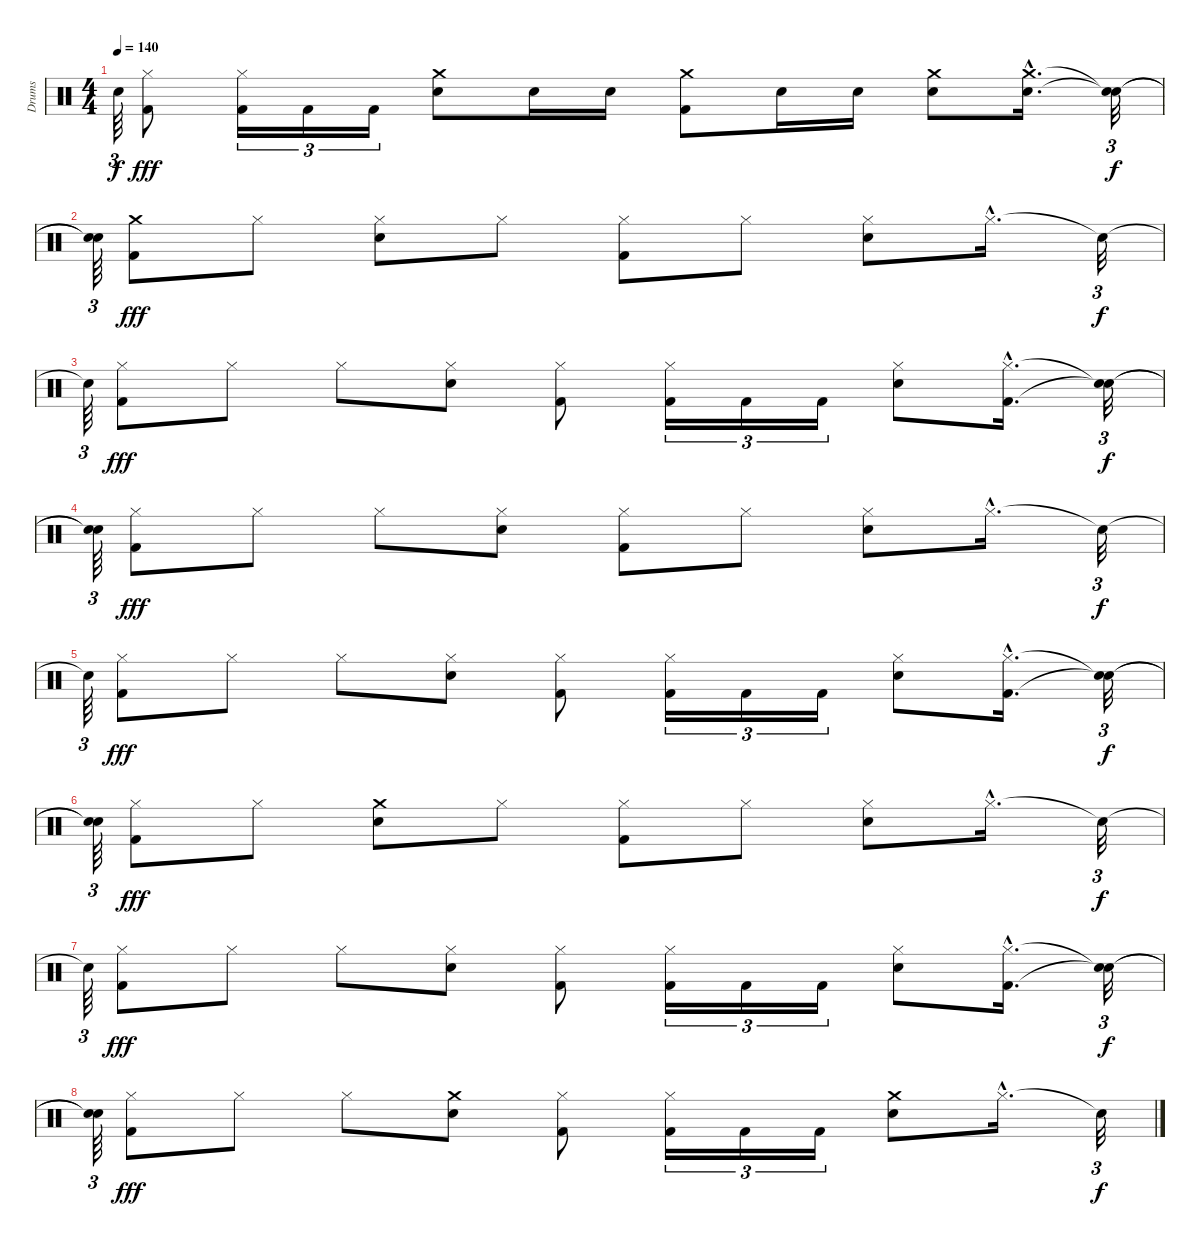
\track ("Drums" "Drums") {instrument percussion}
\staff {score}
\articulation defaults
\ts (4 4)
\tempo 140
\clef neutral
\ks c "Snare (hit)"{t}.64{tu (3 2) dy f}
("Hi-Hat (closed)" "Kick (hit) 2").8{dy fff} ("Hi-Hat (closed)" "Kick (hit) 2").16{tu (3 2)} "Kick (hit) 2".16{tu (3 2)} "Kick (hit) 2".16{tu (3 2)} ("Snare (hit) 2" "Crash medium (hit)").8 "Snare (hit) 2".16 "Snare (hit) 2".16 ("Kick (hit) 2" "Crash medium (hit)").8 "Snare (hit) 2".16 "Snare (hit) 2".16 ("Crash medium (hit)" "Snare (hit) 2").8 ("Crash medium (hit)"{hac} "Snare (hit) 2"{hac}).16{d} ("Snare (hit)"{t} "Snare (hit)"{t}).32{tu (3 2) dy f} |
("Snare (hit)"{t} "Snare (hit)"{t}).64{tu (3 2)} ("Kick (hit) 2" "Crash medium (hit)").8{dy fff} "Hi-Hat (closed)".8 ("Snare (hit) 2" "Hi-Hat (closed)").8 "Hi-Hat (closed)".8 ("Kick (hit) 2" "Hi-Hat (closed)").8 "Hi-Hat (closed)".8 ("Snare (hit) 2" "Hi-Hat (closed)").8 "Hi-Hat (closed)"{hac}.16{d} "Snare (hit)"{t}.32{tu (3 2) dy f} |
"Snare (hit)"{t}.64{tu (3 2)} ("Kick (hit) 2" "Hi-Hat (closed)").8{dy fff} "Hi-Hat (closed)".8 "Hi-Hat (closed)".8 ("Snare (hit) 2" "Hi-Hat (closed)").8 ("Kick (hit) 2" "Hi-Hat (closed)").8 ("Kick (hit) 2" "Hi-Hat (closed)").16{tu (3 2)} "Kick (hit) 2".16{tu (3 2)} "Kick (hit) 2".16{tu (3 2)} ("Snare (hit) 2" "Hi-Hat (closed)").8 ("Kick (hit) 2"{hac} "Hi-Hat (closed)"{hac}).16{d} ("Snare (hit)"{t} "Snare (hit)"{t}).32{tu (3 2) dy f} |
("Snare (hit)"{t} "Snare (hit)"{t}).64{tu (3 2)} ("Hi-Hat (closed)" "Kick (hit) 2").8{dy fff} "Hi-Hat (closed)".8 "Hi-Hat (closed)".8 ("Snare (hit) 2" "Hi-Hat (closed)").8 ("Hi-Hat (closed)" "Kick (hit) 2").8 "Hi-Hat (closed)".8 ("Snare (hit) 2" "Hi-Hat (closed)").8 "Hi-Hat (closed)"{hac}.16{d} "Snare (hit)"{t}.32{tu (3 2) dy f} |
"Snare (hit)"{t}.64{tu (3 2)} ("Kick (hit) 2" "Hi-Hat (closed)").8{dy fff} "Hi-Hat (closed)".8 "Hi-Hat (closed)".8 ("Snare (hit) 2" "Hi-Hat (closed)").8 ("Kick (hit) 2" "Hi-Hat (closed)").8 ("Kick (hit) 2" "Hi-Hat (closed)").16{tu (3 2)} "Kick (hit) 2".16{tu (3 2)} "Kick (hit) 2".16{tu (3 2)} ("Snare (hit) 2" "Hi-Hat (closed)").8 ("Kick (hit) 2"{hac} "Hi-Hat (closed)"{hac}).16{d} ("Snare (hit)"{t} "Snare (hit)"{t}).32{tu (3 2) dy f} |
("Snare (hit)"{t} "Snare (hit)"{t}).64{tu (3 2)} ("Hi-Hat (closed)" "Kick (hit) 2").8{dy fff} "Hi-Hat (closed)".8 ("Crash medium (hit)" "Snare (hit) 2").8 "Hi-Hat (closed)".8 ("Hi-Hat (closed)" "Kick (hit) 2").8 "Hi-Hat (closed)".8 ("Snare (hit) 2" "Hi-Hat (closed)").8 "Hi-Hat (closed)"{hac}.16{d} "Snare (hit)"{t}.32{tu (3 2) dy f} |
"Snare (hit)"{t}.64{tu (3 2)} ("Kick (hit) 2" "Hi-Hat (closed)").8{dy fff} "Hi-Hat (closed)".8 "Hi-Hat (closed)".8 ("Snare (hit) 2" "Hi-Hat (closed)").8 ("Kick (hit) 2" "Hi-Hat (closed)").8 ("Kick (hit) 2" "Hi-Hat (closed)").16{tu (3 2)} "Kick (hit) 2".16{tu (3 2)} "Kick (hit) 2".16{tu (3 2)} ("Snare (hit) 2" "Hi-Hat (closed)").8 ("Kick (hit) 2"{hac} "Hi-Hat (closed)"{hac}).16{d} ("Snare (hit)"{t} "Snare (hit)"{t}).32{tu (3 2) dy f} |
("Snare (hit)"{t} "Snare (hit)"{t}).64{tu (3 2)} ("Kick (hit) 2" "Hi-Hat (closed)").8{dy fff} "Hi-Hat (closed)".8 "Hi-Hat (closed)".8 ("Crash medium (hit)" "Snare (hit) 2").8 ("Kick (hit) 2" "Hi-Hat (closed)").8 ("Kick (hit) 2" "Hi-Hat (closed)").16{tu (3 2)} "Kick (hit) 2".16{tu (3 2)} "Kick (hit) 2".16{tu (3 2)} ("Crash medium (hit)" "Snare (hit) 2").8 "Hi-Hat (closed)"{hac}.16{d} "Snare (hit)"{t}.32{tu (3 2) dy f}
